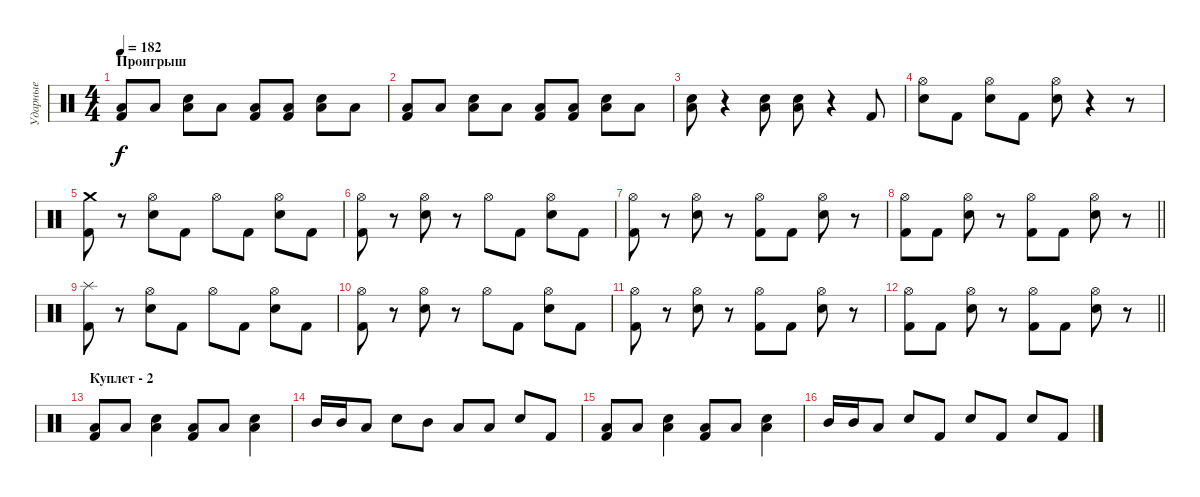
\track ("Ударные" "Ударные") {instrument percussion}
\staff {score}
\articulation defaults
\ts (4 4)
\section ("" "Проигрыш")
\tempo 182
\clef neutral
\ks c
("Low Floor Tom (hit)" "Kick (hit) 2").8{dy f} "Low Floor Tom (hit)".8 ("Low Floor Tom (hit)" "Snare (hit) 2").8 "Low Floor Tom (hit)".8 ("Low Floor Tom (hit)" "Kick (hit) 2").8 ("Low Floor Tom (hit)" "Kick (hit) 2").8 ("Low Floor Tom (hit)" "Snare (hit) 2").8 "Low Floor Tom (hit)".8 |
("Low Floor Tom (hit)" "Kick (hit) 2").8 "Low Floor Tom (hit)".8 ("Low Floor Tom (hit)" "Snare (hit) 2").8 "Low Floor Tom (hit)".8 ("Low Floor Tom (hit)" "Kick (hit) 2").8 ("Low Floor Tom (hit)" "Kick (hit) 2").8 ("Low Floor Tom (hit)" "Snare (hit) 2").8 "Low Floor Tom (hit)".8 |
("Low Floor Tom (hit)" "Snare (hit) 2").8 r.4 ("Low Floor Tom (hit)" "Snare (hit) 2").8 ("Low Floor Tom (hit)" "Snare (hit) 2").8 r.4 "Kick (hit) 2".8 |
("Hi-Hat (open)" "Snare (hit) 2").8 "Kick (hit) 2".8 ("Hi-Hat (open)" "Snare (hit) 2").8 "Kick (hit) 2".8 ("Hi-Hat (open)" "Snare (hit) 2").8 r.4 r.8 |
("Crash medium (hit)" "Kick (hit) 2").8 r.8 ("Hi-Hat (open)" "Snare (hit) 2").8 "Kick (hit) 2".8 "Hi-Hat (open)".8 "Kick (hit) 2".8 ("Hi-Hat (open)" "Snare (hit) 2").8 "Kick (hit) 2".8 |
("Hi-Hat (open)" "Kick (hit) 2").8 r.8 ("Hi-Hat (open)" "Snare (hit) 2").8 r.8 "Hi-Hat (open)".8 "Kick (hit) 2".8 ("Hi-Hat (open)" "Snare (hit) 2").8 "Kick (hit) 2".8 |
("Hi-Hat (open)" "Kick (hit) 2").8 r.8 ("Hi-Hat (open)" "Snare (hit) 2").8 r.8 ("Hi-Hat (open)" "Kick (hit) 2").8 "Kick (hit) 2".8 ("Hi-Hat (open)" "Snare (hit) 2").8 r.8 |
\barLineRight lightlight
("Hi-Hat (open)" "Kick (hit) 2").8 "Kick (hit) 2".8 ("Hi-Hat (open)" "Snare (hit) 2").8 r.8 ("Hi-Hat (open)" "Kick (hit) 2").8 "Kick (hit) 2".8 ("Hi-Hat (open)" "Snare (hit) 2").8 r.8 |
("Splash (hit)" "Kick (hit) 2").8 r.8 ("Hi-Hat (open)" "Snare (hit) 2").8 "Kick (hit) 2".8 "Hi-Hat (open)".8 "Kick (hit) 2".8 ("Hi-Hat (open)" "Snare (hit) 2").8 "Kick (hit) 2".8 |
("Hi-Hat (open)" "Kick (hit) 2").8 r.8 ("Hi-Hat (open)" "Snare (hit) 2").8 r.8 "Hi-Hat (open)".8 "Kick (hit) 2".8 ("Hi-Hat (open)" "Snare (hit) 2").8 "Kick (hit) 2".8 |
("Hi-Hat (open)" "Kick (hit) 2").8 r.8 ("Hi-Hat (open)" "Snare (hit) 2").8 r.8 ("Hi-Hat (open)" "Kick (hit) 2").8 "Kick (hit) 2".8 ("Hi-Hat (open)" "Snare (hit) 2").8 r.8 |
\barLineRight lightlight
("Hi-Hat (open)" "Kick (hit) 2").8 "Kick (hit) 2".8 ("Hi-Hat (open)" "Snare (hit) 2").8 r.8 ("Hi-Hat (open)" "Kick (hit) 2").8 "Kick (hit) 2".8 ("Hi-Hat (open)" "Snare (hit) 2").8 r.8 |
\section ("" "Куплет - 2")
("Low Floor Tom (hit)" "Kick (hit) 2").8 "Low Tom (hit)".8 ("Low Floor Tom (hit)" "Snare (hit) 2").4 ("Low Floor Tom (hit)" "Kick (hit) 2").8 "Low Tom (hit)".8 ("Low Floor Tom (hit)" "Snare (hit) 2").4 |
"Mid Tom (hit)".16 "Mid Tom (hit)".16 "Low Tom (hit)".8 "Snare (hit) 2".8 "Mid Tom (hit)".8 "Low Tom (hit)".8 "Low Tom (hit)".8 "Snare (hit) 2".8 "Kick (hit) 2".8 |
("Low Floor Tom (hit)" "Kick (hit) 2").8 "Low Tom (hit)".8 ("Low Floor Tom (hit)" "Snare (hit) 2").4 ("Low Floor Tom (hit)" "Kick (hit) 2").8 "Low Tom (hit)".8 ("Low Floor Tom (hit)" "Snare (hit) 2").4 |
"Mid Tom (hit)".16 "Mid Tom (hit)".16 "Low Tom (hit)".8 "Snare (hit) 2".8 "Kick (hit) 2".8 "Snare (hit) 2".8 "Kick (hit) 2".8 "Snare (hit) 2".8 "Kick (hit) 2".8
